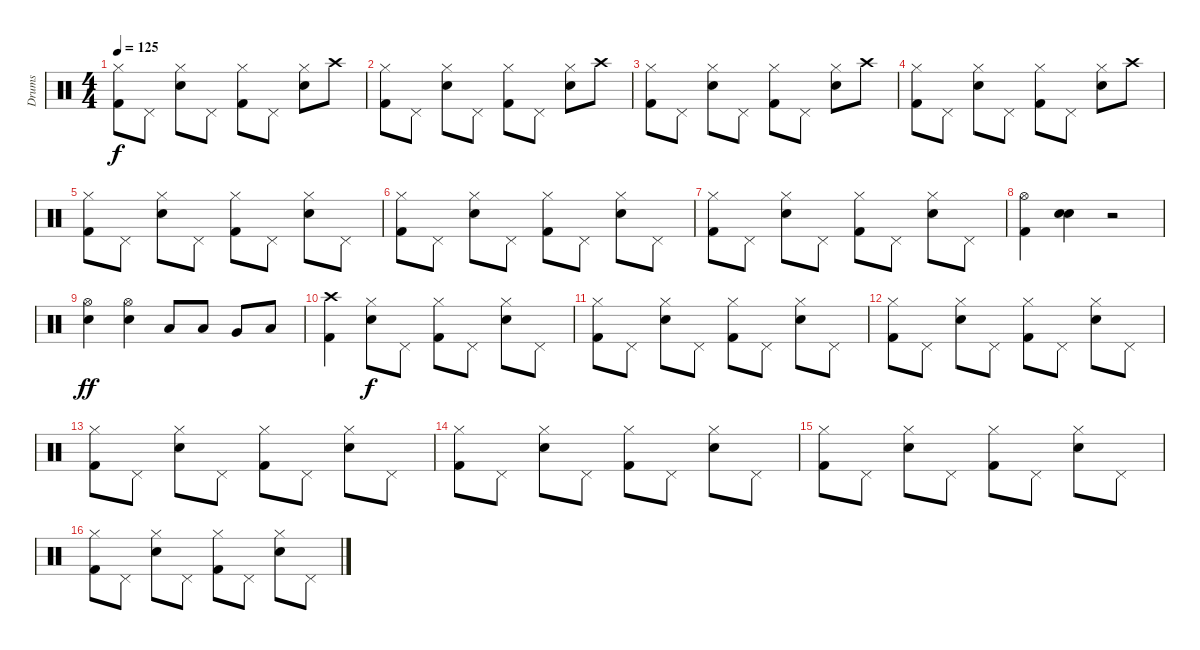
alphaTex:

\track ("Drums" "Drums") {instrument percussion}
\staff {score}
\articulation defaults
\ts (4 4)
\tempo 125
\clef neutral
\ks c
("Hi-Hat (closed)" "Kick (hit) 2").8{dy f} "Pedal Hi-Hat (hit)".8 ("Hi-Hat (closed)" "Electric Snare (hit)").8 "Pedal Hi-Hat (hit)".8 ("Hi-Hat (closed)" "Kick (hit) 2").8 "Pedal Hi-Hat (hit)".8 ("Hi-Hat (closed)" "Electric Snare (hit)").8 "Crash high (hit)".8 |
("Hi-Hat (closed)" "Kick (hit) 2").8 "Pedal Hi-Hat (hit)".8 ("Hi-Hat (closed)" "Electric Snare (hit)").8 "Pedal Hi-Hat (hit)".8 ("Hi-Hat (closed)" "Kick (hit) 2").8 "Pedal Hi-Hat (hit)".8 ("Hi-Hat (closed)" "Electric Snare (hit)").8 "Crash high (hit)".8 |
("Hi-Hat (closed)" "Kick (hit) 2").8 "Pedal Hi-Hat (hit)".8 ("Hi-Hat (closed)" "Electric Snare (hit)").8 "Pedal Hi-Hat (hit)".8 ("Hi-Hat (closed)" "Kick (hit) 2").8 "Pedal Hi-Hat (hit)".8 ("Hi-Hat (closed)" "Electric Snare (hit)").8 "Crash high (hit)".8 |
("Hi-Hat (closed)" "Kick (hit) 2").8 "Pedal Hi-Hat (hit)".8 ("Hi-Hat (closed)" "Electric Snare (hit)").8 "Pedal Hi-Hat (hit)".8 ("Hi-Hat (closed)" "Kick (hit) 2").8 "Pedal Hi-Hat (hit)".8 ("Hi-Hat (closed)" "Electric Snare (hit)").8 "Crash high (hit)".8 |
("Hi-Hat (closed)" "Kick (hit) 2").8 "Pedal Hi-Hat (hit)".8 ("Hi-Hat (closed)" "Electric Snare (hit)").8 "Pedal Hi-Hat (hit)".8 ("Hi-Hat (closed)" "Kick (hit) 2").8 "Pedal Hi-Hat (hit)".8 ("Hi-Hat (closed)" "Electric Snare (hit)").8 "Pedal Hi-Hat (hit)".8 |
("Hi-Hat (closed)" "Kick (hit) 2").8 "Pedal Hi-Hat (hit)".8 ("Hi-Hat (closed)" "Electric Snare (hit)").8 "Pedal Hi-Hat (hit)".8 ("Hi-Hat (closed)" "Kick (hit) 2").8 "Pedal Hi-Hat (hit)".8 ("Hi-Hat (closed)" "Electric Snare (hit)").8 "Pedal Hi-Hat (hit)".8 |
("Hi-Hat (closed)" "Kick (hit) 2").8 "Pedal Hi-Hat (hit)".8 ("Hi-Hat (closed)" "Electric Snare (hit)").8 "Pedal Hi-Hat (hit)".8 ("Hi-Hat (closed)" "Kick (hit) 2").8 "Pedal Hi-Hat (hit)".8 ("Hi-Hat (closed)" "Electric Snare (hit)").8 "Pedal Hi-Hat (hit)".8 |
("Hi-Hat (open)" "Kick (hit) 2").4 ("Snare (hit)"{x} "Snare (hit)"{x}).4 r.2 |
("Hi-Hat (open)" "Snare (hit) 2").4{dy ff} ("Hi-Hat (open)" "Snare (hit) 2").4 "Low Tom (hit)".8{balance 2} "Low Tom (hit)".8 "Very Low Tom (hit)".8 "Low Floor Tom (hit)".8{balance 14} |
("Crash high (hit)" "Kick (hit) 2").4 ("Hi-Hat (closed)" "Electric Snare (hit)").8{dy f} "Pedal Hi-Hat (hit)".8 ("Hi-Hat (closed)" "Kick (hit) 2").8 "Pedal Hi-Hat (hit)".8 ("Hi-Hat (closed)" "Electric Snare (hit)").8 "Pedal Hi-Hat (hit)".8 |
("Hi-Hat (closed)" "Kick (hit) 2").8 "Pedal Hi-Hat (hit)".8 ("Hi-Hat (closed)" "Electric Snare (hit)").8 "Pedal Hi-Hat (hit)".8 ("Hi-Hat (closed)" "Kick (hit) 2").8 "Pedal Hi-Hat (hit)".8 ("Hi-Hat (closed)" "Electric Snare (hit)").8 "Pedal Hi-Hat (hit)".8 |
("Hi-Hat (closed)" "Kick (hit) 2").8 "Pedal Hi-Hat (hit)".8 ("Hi-Hat (closed)" "Electric Snare (hit)").8 "Pedal Hi-Hat (hit)".8 ("Hi-Hat (closed)" "Kick (hit) 2").8 "Pedal Hi-Hat (hit)".8 ("Hi-Hat (closed)" "Electric Snare (hit)").8 "Pedal Hi-Hat (hit)".8 |
("Hi-Hat (closed)" "Kick (hit) 2").8 "Pedal Hi-Hat (hit)".8 ("Hi-Hat (closed)" "Electric Snare (hit)").8 "Pedal Hi-Hat (hit)".8 ("Hi-Hat (closed)" "Kick (hit) 2").8 "Pedal Hi-Hat (hit)".8 ("Hi-Hat (closed)" "Electric Snare (hit)").8 "Pedal Hi-Hat (hit)".8 |
("Hi-Hat (closed)" "Kick (hit) 2").8 "Pedal Hi-Hat (hit)".8 ("Hi-Hat (closed)" "Electric Snare (hit)").8 "Pedal Hi-Hat (hit)".8 ("Hi-Hat (closed)" "Kick (hit) 2").8 "Pedal Hi-Hat (hit)".8 ("Hi-Hat (closed)" "Electric Snare (hit)").8 "Pedal Hi-Hat (hit)".8 |
("Hi-Hat (closed)" "Kick (hit) 2").8 "Pedal Hi-Hat (hit)".8 ("Hi-Hat (closed)" "Electric Snare (hit)").8 "Pedal Hi-Hat (hit)".8 ("Hi-Hat (closed)" "Kick (hit) 2").8 "Pedal Hi-Hat (hit)".8 ("Hi-Hat (closed)" "Electric Snare (hit)").8 "Pedal Hi-Hat (hit)".8 |
("Hi-Hat (closed)" "Kick (hit) 2").8 "Pedal Hi-Hat (hit)".8 ("Hi-Hat (closed)" "Electric Snare (hit)").8 "Pedal Hi-Hat (hit)".8 ("Hi-Hat (closed)" "Kick (hit) 2").8 "Pedal Hi-Hat (hit)".8 ("Hi-Hat (closed)" "Electric Snare (hit)").8 "Pedal Hi-Hat (hit)".8
